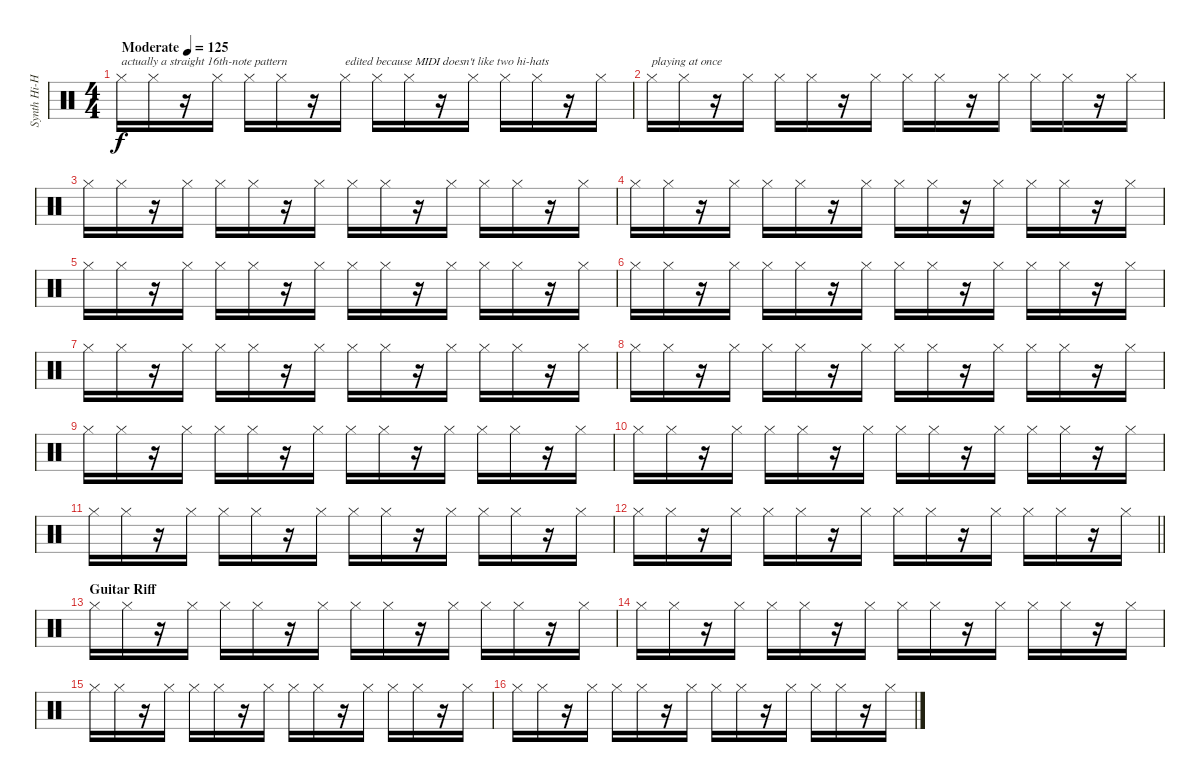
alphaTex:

\track ("Synth Hi-Hat (Gillian Gilbert)" "Synth Hi-H") {instrument percussion}
\staff {score}
\articulation defaults
\ts (4 4)
\tempo (125 "Moderate")
\clef neutral
\ks c "Hi-Hat (closed)".16{txt "actually a straight 16th-note pattern" dy f} "Hi-Hat (closed)".16
r.16 "Hi-Hat (closed)".16 "Hi-Hat (closed)".16 "Hi-Hat (closed)".16 r.16 "Hi-Hat (closed)".16{txt "edited because MIDI doesn't like two hi-hats"} "Hi-Hat (closed)".16 "Hi-Hat (closed)".16 r.16 "Hi-Hat (closed)".16 "Hi-Hat (closed)".16 "Hi-Hat (closed)".16 r.16 "Hi-Hat (closed)".16 |
"Hi-Hat (closed)".16{txt "playing at once"} "Hi-Hat (closed)".16 r.16 "Hi-Hat (closed)".16 "Hi-Hat (closed)".16 "Hi-Hat (closed)".16 r.16 "Hi-Hat (closed)".16 "Hi-Hat (closed)".16 "Hi-Hat (closed)".16 r.16 "Hi-Hat (closed)".16 "Hi-Hat (closed)".16 "Hi-Hat (closed)".16 r.16 "Hi-Hat (closed)".16 |
"Hi-Hat (closed)".16 "Hi-Hat (closed)".16 r.16 "Hi-Hat (closed)".16 "Hi-Hat (closed)".16 "Hi-Hat (closed)".16 r.16 "Hi-Hat (closed)".16 "Hi-Hat (closed)".16 "Hi-Hat (closed)".16 r.16 "Hi-Hat (closed)".16 "Hi-Hat (closed)".16 "Hi-Hat (closed)".16 r.16 "Hi-Hat (closed)".16 |
"Hi-Hat (closed)".16 "Hi-Hat (closed)".16 r.16 "Hi-Hat (closed)".16 "Hi-Hat (closed)".16 "Hi-Hat (closed)".16 r.16 "Hi-Hat (closed)".16 "Hi-Hat (closed)".16 "Hi-Hat (closed)".16 r.16 "Hi-Hat (closed)".16 "Hi-Hat (closed)".16 "Hi-Hat (closed)".16 r.16 "Hi-Hat (closed)".16 |
"Hi-Hat (closed)".16 "Hi-Hat (closed)".16 r.16 "Hi-Hat (closed)".16 "Hi-Hat (closed)".16 "Hi-Hat (closed)".16 r.16 "Hi-Hat (closed)".16 "Hi-Hat (closed)".16 "Hi-Hat (closed)".16 r.16 "Hi-Hat (closed)".16 "Hi-Hat (closed)".16 "Hi-Hat (closed)".16 r.16 "Hi-Hat (closed)".16 |
"Hi-Hat (closed)".16 "Hi-Hat (closed)".16 r.16 "Hi-Hat (closed)".16 "Hi-Hat (closed)".16 "Hi-Hat (closed)".16 r.16 "Hi-Hat (closed)".16 "Hi-Hat (closed)".16 "Hi-Hat (closed)".16 r.16 "Hi-Hat (closed)".16 "Hi-Hat (closed)".16 "Hi-Hat (closed)".16 r.16 "Hi-Hat (closed)".16 |
"Hi-Hat (closed)".16 "Hi-Hat (closed)".16 r.16 "Hi-Hat (closed)".16 "Hi-Hat (closed)".16 "Hi-Hat (closed)".16 r.16 "Hi-Hat (closed)".16 "Hi-Hat (closed)".16 "Hi-Hat (closed)".16 r.16 "Hi-Hat (closed)".16 "Hi-Hat (closed)".16 "Hi-Hat (closed)".16 r.16 "Hi-Hat (closed)".16 |
"Hi-Hat (closed)".16 "Hi-Hat (closed)".16 r.16 "Hi-Hat (closed)".16 "Hi-Hat (closed)".16 "Hi-Hat (closed)".16 r.16 "Hi-Hat (closed)".16 "Hi-Hat (closed)".16 "Hi-Hat (closed)".16 r.16 "Hi-Hat (closed)".16 "Hi-Hat (closed)".16 "Hi-Hat (closed)".16 r.16 "Hi-Hat (closed)".16 |
"Hi-Hat (closed)".16 "Hi-Hat (closed)".16 r.16 "Hi-Hat (closed)".16 "Hi-Hat (closed)".16 "Hi-Hat (closed)".16 r.16 "Hi-Hat (closed)".16 "Hi-Hat (closed)".16 "Hi-Hat (closed)".16 r.16 "Hi-Hat (closed)".16 "Hi-Hat (closed)".16 "Hi-Hat (closed)".16 r.16 "Hi-Hat (closed)".16 |
"Hi-Hat (closed)".16 "Hi-Hat (closed)".16 r.16 "Hi-Hat (closed)".16 "Hi-Hat (closed)".16 "Hi-Hat (closed)".16 r.16 "Hi-Hat (closed)".16 "Hi-Hat (closed)".16 "Hi-Hat (closed)".16 r.16 "Hi-Hat (closed)".16 "Hi-Hat (closed)".16 "Hi-Hat (closed)".16 r.16 "Hi-Hat (closed)".16 |
"Hi-Hat (closed)".16 "Hi-Hat (closed)".16 r.16 "Hi-Hat (closed)".16 "Hi-Hat (closed)".16 "Hi-Hat (closed)".16 r.16 "Hi-Hat (closed)".16 "Hi-Hat (closed)".16 "Hi-Hat (closed)".16 r.16 "Hi-Hat (closed)".16 "Hi-Hat (closed)".16 "Hi-Hat (closed)".16 r.16 "Hi-Hat (closed)".16 |
\barLineRight lightlight "Hi-Hat (closed)".16 "Hi-Hat (closed)".16
r.16 "Hi-Hat (closed)".16 "Hi-Hat (closed)".16 "Hi-Hat (closed)".16 r.16 "Hi-Hat (closed)".16 "Hi-Hat (closed)".16 "Hi-Hat (closed)".16 r.16 "Hi-Hat (closed)".16 "Hi-Hat (closed)".16 "Hi-Hat (closed)".16 r.16 "Hi-Hat (closed)".16 |
\section ("" "Guitar Riff")
"Hi-Hat (closed)".16 "Hi-Hat (closed)".16 r.16 "Hi-Hat (closed)".16 "Hi-Hat (closed)".16 "Hi-Hat (closed)".16 r.16 "Hi-Hat (closed)".16 "Hi-Hat (closed)".16 "Hi-Hat (closed)".16 r.16 "Hi-Hat (closed)".16 "Hi-Hat (closed)".16 "Hi-Hat (closed)".16 r.16 "Hi-Hat (closed)".16 |
"Hi-Hat (closed)".16 "Hi-Hat (closed)".16 r.16 "Hi-Hat (closed)".16 "Hi-Hat (closed)".16 "Hi-Hat (closed)".16 r.16 "Hi-Hat (closed)".16 "Hi-Hat (closed)".16 "Hi-Hat (closed)".16 r.16 "Hi-Hat (closed)".16 "Hi-Hat (closed)".16 "Hi-Hat (closed)".16 r.16 "Hi-Hat (closed)".16 |
"Hi-Hat (closed)".16 "Hi-Hat (closed)".16 r.16 "Hi-Hat (closed)".16 "Hi-Hat (closed)".16 "Hi-Hat (closed)".16 r.16 "Hi-Hat (closed)".16 "Hi-Hat (closed)".16 "Hi-Hat (closed)".16 r.16 "Hi-Hat (closed)".16 "Hi-Hat (closed)".16 "Hi-Hat (closed)".16 r.16 "Hi-Hat (closed)".16 |
"Hi-Hat (closed)".16 "Hi-Hat (closed)".16 r.16 "Hi-Hat (closed)".16 "Hi-Hat (closed)".16 "Hi-Hat (closed)".16 r.16 "Hi-Hat (closed)".16 "Hi-Hat (closed)".16 "Hi-Hat (closed)".16 r.16 "Hi-Hat (closed)".16 "Hi-Hat (closed)".16 "Hi-Hat (closed)".16 r.16 "Hi-Hat (closed)".16
